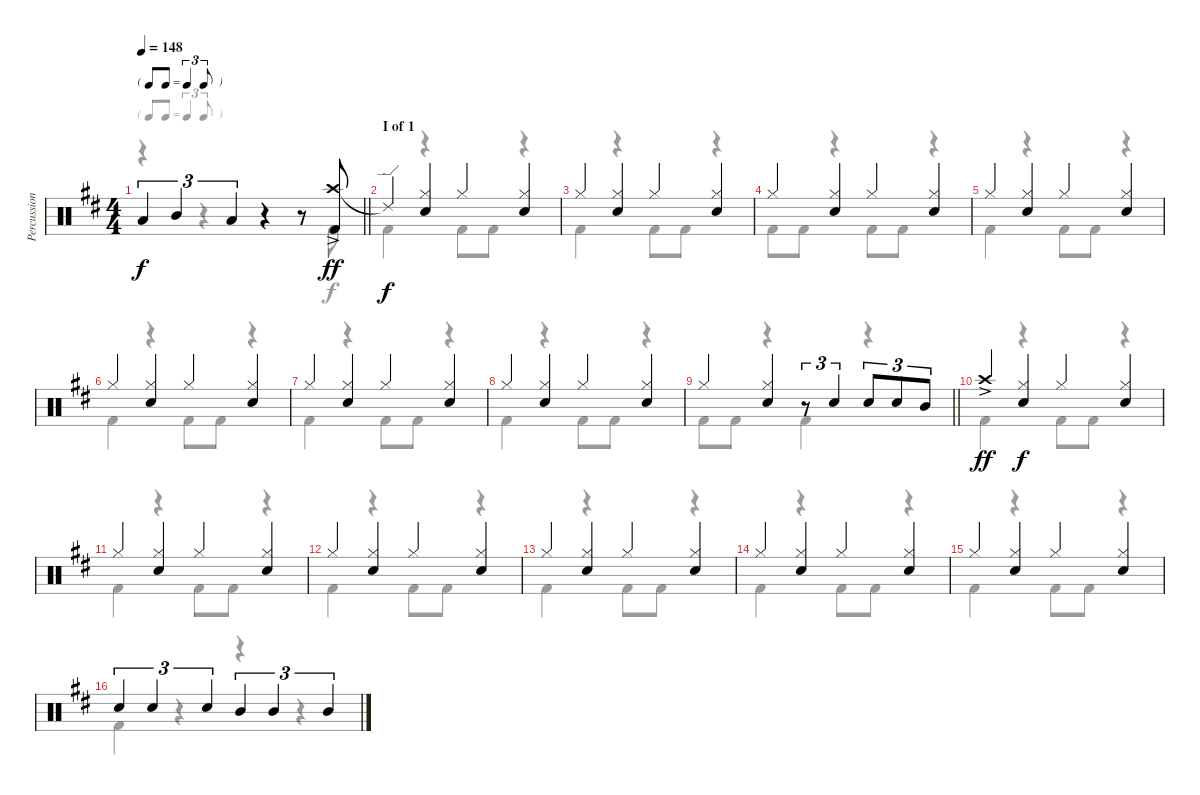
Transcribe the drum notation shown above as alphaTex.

\track ("Percussion" "Percussion") {instrument percussion}
\staff {score}
\articulation defaults
\voice
\ts (4 4)
\tf triplet8th
\tempo 148
\clef neutral
\barLineRight lightlight
\ks bminor "Low Tom (hit)".4{tu (3 2) dy f} "Mid Tom (hit)".4{tu (3 2)} "Low Tom (hit)".4{tu (3 2)}
r.4 r.8 ("Crash high (hit)" "Kick (hit) 2"{ac}).8{dy ff} |
\section ("" "I of 1")
"Ride (edge) 2"{t}.4{dy f} ("Hi-Hat (closed)" "Snare (hit) 2").4 "Hi-Hat (closed)".4 ("Hi-Hat (closed)" "Snare (hit) 2").4 |
"Hi-Hat (closed)".4 ("Hi-Hat (closed)" "Snare (hit) 2").4 "Hi-Hat (closed)".4 ("Hi-Hat (closed)" "Snare (hit) 2").4 |
"Hi-Hat (closed)".4 ("Hi-Hat (closed)" "Snare (hit) 2").4 "Hi-Hat (closed)".4 ("Hi-Hat (closed)" "Snare (hit) 2").4 |
"Hi-Hat (closed)".4 ("Hi-Hat (closed)" "Snare (hit) 2").4 "Hi-Hat (closed)".4 ("Hi-Hat (closed)" "Snare (hit) 2").4 |
"Hi-Hat (closed)".4 ("Hi-Hat (closed)" "Snare (hit) 2").4 "Hi-Hat (closed)".4 ("Hi-Hat (closed)" "Snare (hit) 2").4 |
"Hi-Hat (closed)".4 ("Hi-Hat (closed)" "Snare (hit) 2").4 "Hi-Hat (closed)".4 ("Hi-Hat (closed)" "Snare (hit) 2").4 |
"Hi-Hat (closed)".4 ("Hi-Hat (closed)" "Snare (hit) 2").4 "Hi-Hat (closed)".4 ("Hi-Hat (closed)" "Snare (hit) 2").4 |
\barLineRight lightlight "Hi-Hat (closed)".4
("Hi-Hat (closed)" "Snare (hit) 2").4 r.8{tu (3 2)} "Snare (hit) 2".4{tu (3 2)} "Snare (hit) 2".8{tu (3 2)} "Snare (hit) 2".8{tu (3 2)} "Mid Tom (hit)".8{tu (3 2)} |
"Crash high (hit)"{ac}.4{dy ff} ("Hi-Hat (closed)" "Snare (hit) 2").4{dy f} "Hi-Hat (closed)".4 ("Hi-Hat (closed)" "Snare (hit) 2").4 |
"Hi-Hat (closed)".4 ("Hi-Hat (closed)" "Snare (hit) 2").4 "Hi-Hat (closed)".4 ("Hi-Hat (closed)" "Snare (hit) 2").4 |
"Hi-Hat (closed)".4 ("Hi-Hat (closed)" "Snare (hit) 2").4 "Hi-Hat (closed)".4 ("Hi-Hat (closed)" "Snare (hit) 2").4 |
"Hi-Hat (closed)".4 ("Hi-Hat (closed)" "Snare (hit) 2").4 "Hi-Hat (closed)".4 ("Hi-Hat (closed)" "Snare (hit) 2").4 |
"Hi-Hat (closed)".4 ("Hi-Hat (closed)" "Snare (hit) 2").4 "Hi-Hat (closed)".4 ("Hi-Hat (closed)" "Snare (hit) 2").4 |
"Hi-Hat (closed)".4 ("Hi-Hat (closed)" "Snare (hit) 2").4 "Hi-Hat (closed)".4 ("Hi-Hat (closed)" "Snare (hit) 2").4 |
"Snare (hit) 2".4{tu (3 2)} "Snare (hit) 2".4{tu (3 2)} "Snare (hit) 2".4{tu (3 2)} "Mid Tom (hit)".4{tu (3 2)} "Mid Tom (hit)".4{tu (3 2)} "Mid Tom (hit)".4{tu (3 2)}
\voice
\clef neutral
\ottava regular
\simile none
\barLineRight lightlight
\ks bminor
r.4{dy f} r.4 r.4 r.8 "Kick (hit) 2".8 |
"Kick (hit) 2".4 r.4 "Kick (hit) 2".8 "Kick (hit) 2".8 r.4 |
"Kick (hit) 2".4 r.4 "Kick (hit) 2".8 "Kick (hit) 2".8 r.4 |
"Kick (hit) 2".8 "Kick (hit) 2".8 r.4 "Kick (hit) 2".8 "Kick (hit) 2".8 r.4 |
"Kick (hit) 2".4 r.4 "Kick (hit) 2".8 "Kick (hit) 2".8 r.4 |
"Kick (hit) 2".4 r.4 "Kick (hit) 2".8 "Kick (hit) 2".8 r.4 |
"Kick (hit) 2".4 r.4 "Kick (hit) 2".8 "Kick (hit) 2".8 r.4 |
"Kick (hit) 2".4 r.4 "Kick (hit) 2".8 "Kick (hit) 2".8 r.4 |
\barLineRight lightlight "Kick (hit) 2".8 "Kick (hit) 2".8
r.4 "Kick (hit) 2".4 r.4 |
"Kick (hit) 2".4 r.4 "Kick (hit) 2".8 "Kick (hit) 2".8 r.4 |
"Kick (hit) 2".4 r.4 "Kick (hit) 2".8 "Kick (hit) 2".8 r.4 |
"Kick (hit) 2".4 r.4 "Kick (hit) 2".8 "Kick (hit) 2".8 r.4 |
"Kick (hit) 2".4 r.4 "Kick (hit) 2".8 "Kick (hit) 2".8 r.4 |
"Kick (hit) 2".4 r.4 "Kick (hit) 2".8 "Kick (hit) 2".8 r.4 |
"Kick (hit) 2".4 r.4 "Kick (hit) 2".8 "Kick (hit) 2".8 r.4 |
"Kick (hit) 2".4 r.4 r.4 r.4
